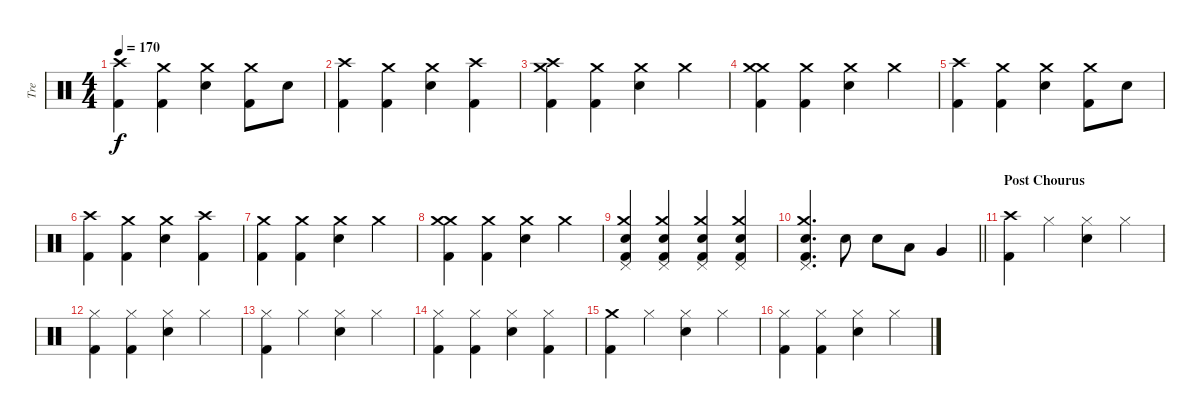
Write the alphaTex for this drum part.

\track ("Tre" "Tre") {instrument percussion}
\staff {score}
\articulation defaults
\ts (4 4)
\tempo 170
\clef neutral
\ks c
("Crash high (hit)" "Kick (hit) 2").4{dy f} ("Crash medium (hit)" "Kick (hit) 2").4 ("Crash medium (hit)" "Snare (hit) 2").4 ("Crash medium (hit)" "Kick (hit) 2").8 "Snare (hit) 2".8 |
("Crash high (hit)" "Kick (hit) 2").4 ("Crash medium (hit)" "Kick (hit) 2").4 ("Crash medium (hit)" "Snare (hit) 2").4 ("Crash high (hit)" "Kick (hit) 2").4 |
("Crash medium (hit)" "Crash high (hit)" "Kick (hit) 2").4 ("Crash medium (hit)" "Kick (hit) 2").4 ("Crash medium (hit)" "Snare (hit) 2").4 "Crash medium (hit)".4 |
("Crash medium (hit)" "Crash medium (hit)" "Kick (hit) 2").4 ("Crash medium (hit)" "Kick (hit) 2").4 ("Crash medium (hit)" "Snare (hit) 2").4 "Crash medium (hit)".4 |
("Crash high (hit)" "Kick (hit) 2").4 ("Crash medium (hit)" "Kick (hit) 2").4 ("Crash medium (hit)" "Snare (hit) 2").4 ("Crash medium (hit)" "Kick (hit) 2").8 "Snare (hit) 2".8 |
("Crash high (hit)" "Kick (hit) 2").4 ("Crash medium (hit)" "Kick (hit) 2").4 ("Crash medium (hit)" "Snare (hit) 2").4 ("Crash high (hit)" "Kick (hit) 2").4 |
("Crash medium (hit)" "Kick (hit) 2").4 ("Crash medium (hit)" "Kick (hit) 2").4 ("Crash medium (hit)" "Snare (hit) 2").4 "Crash medium (hit)".4 |
("Crash medium (hit)" "Crash medium (hit)" "Kick (hit) 2").4 ("Crash medium (hit)" "Kick (hit) 2").4 ("Crash medium (hit)" "Snare (hit) 2").4 "Crash medium (hit)".4 |
("Crash medium (hit)" "Snare (hit) 2" "Pedal Hi-Hat (hit)" "Kick (hit) 2").4 ("Crash medium (hit)" "Snare (hit) 2" "Pedal Hi-Hat (hit)" "Kick (hit) 2").4 ("Crash medium (hit)" "Snare (hit) 2" "Pedal Hi-Hat (hit)" "Kick (hit) 2").4 ("Crash medium (hit)" "Snare (hit) 2" "Pedal Hi-Hat (hit)" "Kick (hit) 2").4 |
\barLineRight lightlight
("Crash medium (hit)" "Snare (hit) 2" "Pedal Hi-Hat (hit)" "Kick (hit) 2").4{d} "Snare (hit) 2".8 "Snare (hit) 2".8 "Low Tom (hit)".8 "Very Low Tom (hit)".4 |
\section ("" "Post Chourus")
("Crash high (hit)" "Kick (hit) 2").4 "Hi-Hat (closed)".4 ("Hi-Hat (closed)" "Snare (hit) 2").4 "Hi-Hat (closed)".4 |
("Hi-Hat (closed)" "Kick (hit) 2").4 ("Hi-Hat (closed)" "Kick (hit) 2").4 ("Hi-Hat (closed)" "Snare (hit) 2").4 "Hi-Hat (closed)".4 |
("Hi-Hat (closed)" "Kick (hit) 2").4 "Hi-Hat (closed)".4 ("Hi-Hat (closed)" "Snare (hit) 2").4 "Hi-Hat (closed)".4 |
("Hi-Hat (closed)" "Kick (hit) 2").4 ("Hi-Hat (closed)" "Kick (hit) 2").4 ("Hi-Hat (closed)" "Snare (hit) 2").4 ("Hi-Hat (closed)" "Kick (hit) 2").4 |
("Crash medium (hit)" "Kick (hit) 2").4 "Hi-Hat (closed)".4 ("Hi-Hat (closed)" "Snare (hit) 2").4 "Hi-Hat (closed)".4 |
("Hi-Hat (closed)" "Kick (hit) 2").4 ("Hi-Hat (closed)" "Kick (hit) 2").4 ("Hi-Hat (closed)" "Snare (hit) 2").4 "Hi-Hat (closed)".4
